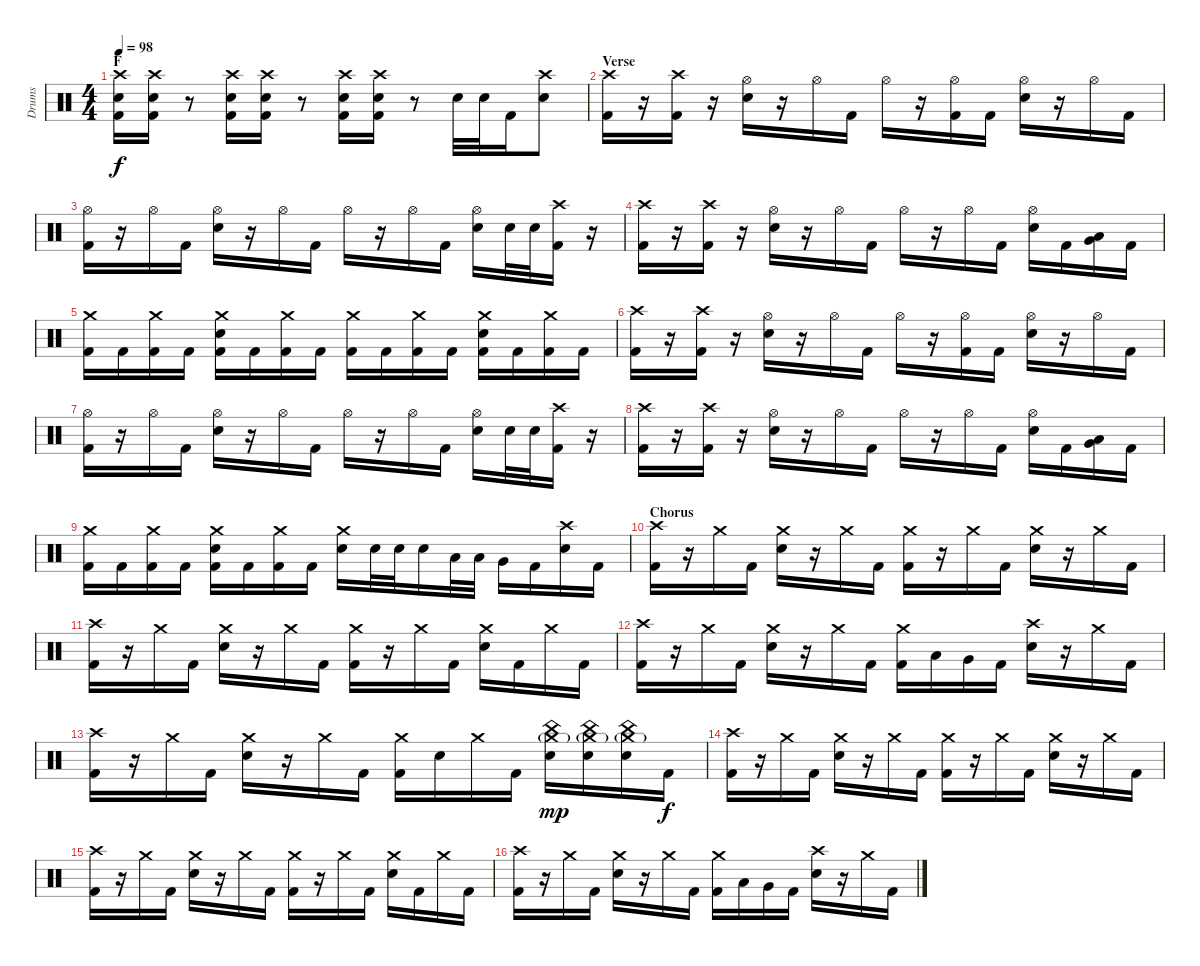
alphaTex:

\track ("Drums" "Drums") {instrument percussion}
\staff {score}
\articulation defaults
\ts (4 4)
\section ("" "F")
\tempo 98
\clef neutral
\ks c
("Crash high (hit)" "Snare (hit) 2" "Kick (hit) 2").16{dy f} ("Crash high (hit)" "Snare (hit) 2" "Kick (hit) 2").16 r.8 ("Crash high (hit)" "Snare (hit) 2" "Kick (hit) 2").16 ("Crash high (hit)" "Snare (hit) 2" "Kick (hit) 2").16 r.8 ("Crash high (hit)" "Snare (hit) 2" "Kick (hit) 2").16 ("Crash high (hit)" "Snare (hit) 2" "Kick (hit) 2").16 r.8 "Snare (hit) 2".32 "Snare (hit) 2".32 "Kick (hit) 2".16 ("Crash high (hit)" "Snare (hit) 2").8 |
\section ("" "Verse")
("Crash high (hit)" "Kick (hit) 2").16 r.16 ("Crash high (hit)" "Kick (hit) 2").16 r.16 ("Hi-Hat (open)" "Snare (hit) 2").16 r.16 "Hi-Hat (open)".16 "Kick (hit) 2".16 "Hi-Hat (open)".16 r.16 ("Hi-Hat (open)" "Kick (hit) 2").16 "Kick (hit) 2".16 ("Hi-Hat (open)" "Snare (hit) 2").16 r.16 "Hi-Hat (open)".16 "Kick (hit) 2".16 |
("Hi-Hat (open)" "Kick (hit) 2").16 r.16 "Hi-Hat (open)".16 "Kick (hit) 2".16 ("Hi-Hat (open)" "Snare (hit) 2").16 r.16 "Hi-Hat (open)".16 "Kick (hit) 2".16 "Hi-Hat (open)".16 r.16 "Hi-Hat (open)".16 "Kick (hit) 2".16 ("Hi-Hat (open)" "Snare (hit) 2").16 "Snare (hit) 2".32 "Snare (hit) 2".32 ("Crash high (hit)" "Kick (hit) 2").16 r.16 |
("Crash high (hit)" "Kick (hit) 2").16 r.16 ("Crash high (hit)" "Kick (hit) 2").16 r.16 ("Hi-Hat (open)" "Snare (hit) 2").16 r.16 "Hi-Hat (open)".16 "Kick (hit) 2".16 "Hi-Hat (open)".16 r.16 "Hi-Hat (open)".16 "Kick (hit) 2".16 ("Hi-Hat (open)" "Snare (hit) 2").16 "Kick (hit) 2".16 ("Low Tom (hit)" "Very Low Tom (hit)").16 "Kick (hit) 2".16 |
("Crash medium (hit)" "Kick (hit) 2").16 "Kick (hit) 2".16 ("Crash medium (hit)" "Kick (hit) 2").16 "Kick (hit) 2".16 ("Crash medium (hit)" "Snare (hit) 2" "Kick (hit) 2").16 "Kick (hit) 2".16 ("Crash medium (hit)" "Kick (hit) 2").16 "Kick (hit) 2".16 ("Crash medium (hit)" "Kick (hit) 2").16 "Kick (hit) 2".16 ("Crash medium (hit)" "Kick (hit) 2").16 "Kick (hit) 2".16 ("Crash medium (hit)" "Snare (hit) 2" "Kick (hit) 2").16 "Kick (hit) 2".16 ("Crash medium (hit)" "Kick (hit) 2").16 "Kick (hit) 2".16 |
("Crash high (hit)" "Kick (hit) 2").16 r.16 ("Crash high (hit)" "Kick (hit) 2").16 r.16 ("Hi-Hat (open)" "Snare (hit) 2").16 r.16 "Hi-Hat (open)".16 "Kick (hit) 2".16 "Hi-Hat (open)".16 r.16 ("Hi-Hat (open)" "Kick (hit) 2").16 "Kick (hit) 2".16 ("Hi-Hat (open)" "Snare (hit) 2").16 r.16 "Hi-Hat (open)".16 "Kick (hit) 2".16 |
("Hi-Hat (open)" "Kick (hit) 2").16 r.16 "Hi-Hat (open)".16 "Kick (hit) 2".16 ("Hi-Hat (open)" "Snare (hit) 2").16 r.16 "Hi-Hat (open)".16 "Kick (hit) 2".16 "Hi-Hat (open)".16 r.16 "Hi-Hat (open)".16 "Kick (hit) 2".16 ("Hi-Hat (open)" "Snare (hit) 2").16 "Snare (hit) 2".32 "Snare (hit) 2".32 ("Crash high (hit)" "Kick (hit) 2").16 r.16 |
("Crash high (hit)" "Kick (hit) 2").16 r.16 ("Crash high (hit)" "Kick (hit) 2").16 r.16 ("Hi-Hat (open)" "Snare (hit) 2").16 r.16 "Hi-Hat (open)".16 "Kick (hit) 2".16 "Hi-Hat (open)".16 r.16 "Hi-Hat (open)".16 "Kick (hit) 2".16 ("Hi-Hat (open)" "Snare (hit) 2").16 "Kick (hit) 2".16 ("Low Tom (hit)" "Very Low Tom (hit)").16 "Kick (hit) 2".16 |
("Crash medium (hit)" "Kick (hit) 2").16 "Kick (hit) 2".16 ("Crash medium (hit)" "Kick (hit) 2").16 "Kick (hit) 2".16 ("Crash medium (hit)" "Snare (hit) 2" "Kick (hit) 2").16 "Kick (hit) 2".16 ("Crash medium (hit)" "Kick (hit) 2").16 "Kick (hit) 2".16 ("Crash medium (hit)" "Snare (hit) 2").16 "Snare (hit) 2".32 "Snare (hit) 2".32 "Snare (hit) 2".16 "Low Tom (hit)".32 "Low Tom (hit)".32 "Very Low Tom (hit)".16 "Kick (hit) 2".16 ("Crash high (hit)" "Snare (hit) 2").16 "Kick (hit) 2".16 |
\section ("" "Chorus")
("Crash high (hit)" "Kick (hit) 2").16 r.16 "Crash medium (hit)".16 "Kick (hit) 2".16 ("Crash medium (hit)" "Snare (hit) 2").16 r.16 "Crash medium (hit)".16 "Kick (hit) 2".16 ("Crash medium (hit)" "Kick (hit) 2").16 r.16 "Crash medium (hit)".16 "Kick (hit) 2".16 ("Crash medium (hit)" "Snare (hit) 2").16 r.16 "Crash medium (hit)".16 "Kick (hit) 2".16 |
("Crash high (hit)" "Kick (hit) 2").16 r.16 "Crash medium (hit)".16 "Kick (hit) 2".16 ("Crash medium (hit)" "Snare (hit) 2").16 r.16 "Crash medium (hit)".16 "Kick (hit) 2".16 ("Crash medium (hit)" "Kick (hit) 2").16 r.16 "Crash medium (hit)".16 "Kick (hit) 2".16 ("Crash medium (hit)" "Snare (hit) 2").16 "Kick (hit) 2".16 "Crash medium (hit)".16 "Kick (hit) 2".16 |
("Crash high (hit)" "Kick (hit) 2").16 r.16 "Crash medium (hit)".16 "Kick (hit) 2".16 ("Crash medium (hit)" "Snare (hit) 2").16 r.16 "Crash medium (hit)".16 "Kick (hit) 2".16 ("Crash medium (hit)" "Kick (hit) 2").16 "Low Tom (hit)".16 "Very Low Tom (hit)".16 "Kick (hit) 2".16 ("Crash high (hit)" "Snare (hit) 2").16 r.16 "Crash medium (hit)".16 "Kick (hit) 2".16 |
("Crash high (hit)" "Kick (hit) 2").16 r.16 "Crash medium (hit)".16 "Kick (hit) 2".16 ("Crash medium (hit)" "Snare (hit) 2").16 r.16 "Crash medium (hit)".16 "Kick (hit) 2".16 ("Crash medium (hit)" "Kick (hit) 2").16 "Snare (hit) 2".16 "Crash medium (hit)".16 "Kick (hit) 2".16 ("China (hit)" "Crash medium (hit)"{g} "Snare (hit) 2").16{dy mp} ("China (hit)" "Crash medium (hit)"{g} "Snare (hit) 2").16 ("China (hit)" "Crash medium (hit)"{g} "Snare (hit) 2").16 "Kick (hit) 2".16{dy f} |
("Crash high (hit)" "Kick (hit) 2").16 r.16 "Crash medium (hit)".16 "Kick (hit) 2".16 ("Crash medium (hit)" "Snare (hit) 2").16 r.16 "Crash medium (hit)".16 "Kick (hit) 2".16 ("Crash medium (hit)" "Kick (hit) 2").16 r.16 "Crash medium (hit)".16 "Kick (hit) 2".16 ("Crash medium (hit)" "Snare (hit) 2").16 r.16 "Crash medium (hit)".16 "Kick (hit) 2".16 |
("Crash high (hit)" "Kick (hit) 2").16 r.16 "Crash medium (hit)".16 "Kick (hit) 2".16 ("Crash medium (hit)" "Snare (hit) 2").16 r.16 "Crash medium (hit)".16 "Kick (hit) 2".16 ("Crash medium (hit)" "Kick (hit) 2").16 r.16 "Crash medium (hit)".16 "Kick (hit) 2".16 ("Crash medium (hit)" "Snare (hit) 2").16 "Kick (hit) 2".16 "Crash medium (hit)".16 "Kick (hit) 2".16 |
("Crash high (hit)" "Kick (hit) 2").16 r.16 "Crash medium (hit)".16 "Kick (hit) 2".16 ("Crash medium (hit)" "Snare (hit) 2").16 r.16 "Crash medium (hit)".16 "Kick (hit) 2".16 ("Crash medium (hit)" "Kick (hit) 2").16 "Low Tom (hit)".16 "Very Low Tom (hit)".16 "Kick (hit) 2".16 ("Crash high (hit)" "Snare (hit) 2").16 r.16 "Crash medium (hit)".16 "Kick (hit) 2".16
